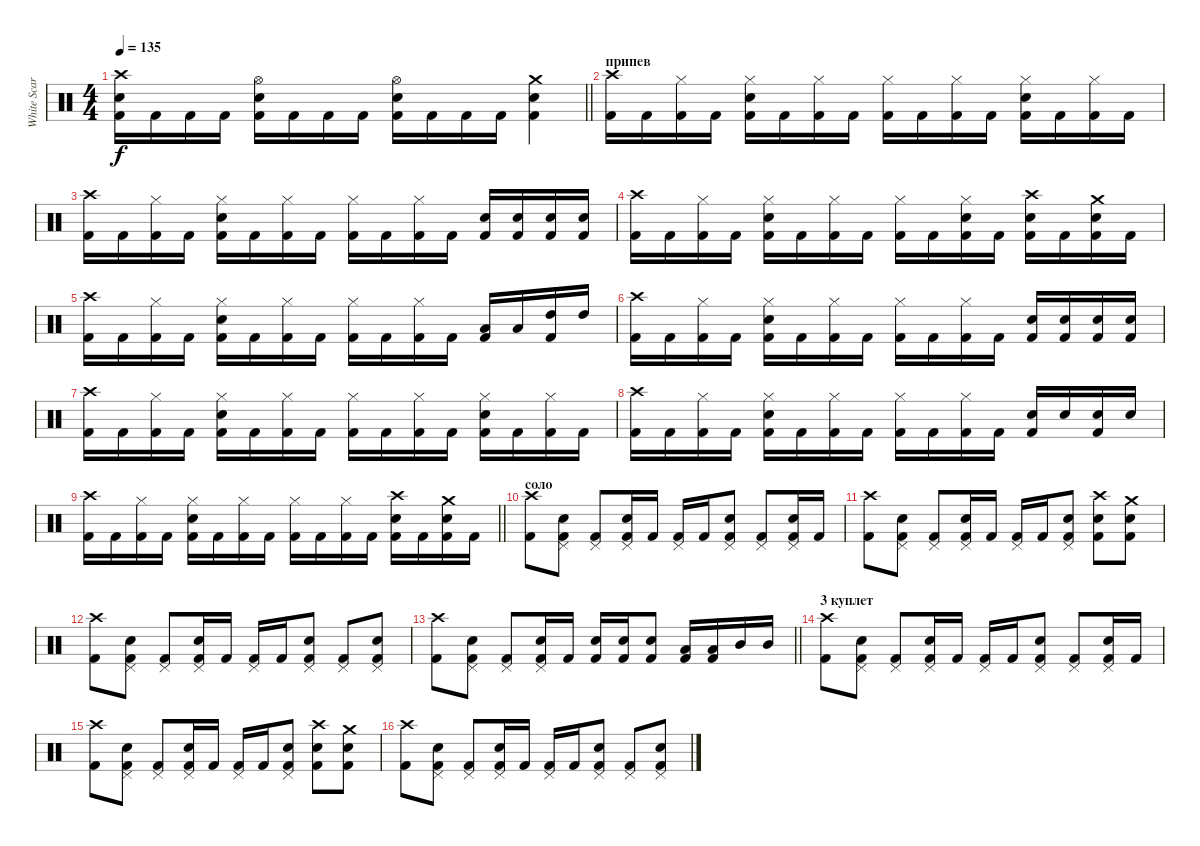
\track ("White Scar" "White Scar") {instrument percussion}
\staff {score}
\articulation defaults
\ts (4 4)
\tempo 135
\clef neutral
\barLineRight lightlight
\ks c
("Crash high (hit)" "Snare (hit) 2" "Kick (hit) 2").16{dy f} "Kick (hit) 2".16 "Kick (hit) 2".16 "Kick (hit) 2".16 ("Hi-Hat (open)" "Snare (hit) 2" "Kick (hit) 2").16 "Kick (hit) 2".16 "Kick (hit) 2".16 "Kick (hit) 2".16 ("Hi-Hat (open)" "Snare (hit) 2" "Kick (hit) 2").16 "Kick (hit) 2".16 "Kick (hit) 2".16 "Kick (hit) 2".16 ("Crash medium (hit)" "Snare (hit) 2" "Kick (hit) 2").4 |
\section ("" "припев")
("Crash high (hit)" "Kick (hit) 2").16 "Kick (hit) 2".16 ("Hi-Hat (closed)" "Kick (hit) 2").16 "Kick (hit) 2".16 ("Snare (hit) 2" "Hi-Hat (closed)" "Kick (hit) 2").16 "Kick (hit) 2".16 ("Hi-Hat (closed)" "Kick (hit) 2").16 "Kick (hit) 2".16 ("Hi-Hat (closed)" "Kick (hit) 2").16 "Kick (hit) 2".16 ("Hi-Hat (closed)" "Kick (hit) 2").16 "Kick (hit) 2".16 ("Snare (hit) 2" "Hi-Hat (closed)" "Kick (hit) 2").16 "Kick (hit) 2".16 ("Hi-Hat (closed)" "Kick (hit) 2").16 "Kick (hit) 2".16 |
("Crash high (hit)" "Kick (hit) 2").16 "Kick (hit) 2".16 ("Hi-Hat (closed)" "Kick (hit) 2").16 "Kick (hit) 2".16 ("Snare (hit) 2" "Hi-Hat (closed)" "Kick (hit) 2").16 "Kick (hit) 2".16 ("Hi-Hat (closed)" "Kick (hit) 2").16 "Kick (hit) 2".16 ("Hi-Hat (closed)" "Kick (hit) 2").16 "Kick (hit) 2".16 ("Hi-Hat (closed)" "Kick (hit) 2").16 "Kick (hit) 2".16 ("Snare (hit) 2" "Kick (hit) 2").16 ("Snare (hit) 2" "Kick (hit) 2").16 ("Snare (hit) 2" "Kick (hit) 2").16 ("Snare (hit) 2" "Kick (hit) 2").16 |
("Crash high (hit)" "Kick (hit) 2").16 "Kick (hit) 2".16 ("Hi-Hat (closed)" "Kick (hit) 2").16 "Kick (hit) 2".16 ("Snare (hit) 2" "Hi-Hat (closed)" "Kick (hit) 2").16 "Kick (hit) 2".16 ("Hi-Hat (closed)" "Kick (hit) 2").16 "Kick (hit) 2".16 ("Hi-Hat (closed)" "Kick (hit) 2").16 "Kick (hit) 2".16 ("Snare (hit) 2" "Hi-Hat (closed)" "Kick (hit) 2").16 "Kick (hit) 2".16 ("Snare (hit) 2" "Crash high (hit)" "Kick (hit) 2").16 "Kick (hit) 2".16 ("Snare (hit) 2" "Crash medium (hit)" "Kick (hit) 2").16 "Kick (hit) 2".16 |
("Crash high (hit)" "Kick (hit) 2").16 "Kick (hit) 2".16 ("Hi-Hat (closed)" "Kick (hit) 2").16 "Kick (hit) 2".16 ("Snare (hit) 2" "Hi-Hat (closed)" "Kick (hit) 2").16 "Kick (hit) 2".16 ("Hi-Hat (closed)" "Kick (hit) 2").16 "Kick (hit) 2".16 ("Hi-Hat (closed)" "Kick (hit) 2").16 "Kick (hit) 2".16 ("Hi-Hat (closed)" "Kick (hit) 2").16 "Kick (hit) 2".16 ("Low Tom (hit)" "Kick (hit) 2").16 "Low Tom (hit)".16 ("High Tom (hit)" "Kick (hit) 2").16 "High Tom (hit)".16 |
("Crash high (hit)" "Kick (hit) 2").16 "Kick (hit) 2".16 ("Hi-Hat (closed)" "Kick (hit) 2").16 "Kick (hit) 2".16 ("Snare (hit) 2" "Hi-Hat (closed)" "Kick (hit) 2").16 "Kick (hit) 2".16 ("Hi-Hat (closed)" "Kick (hit) 2").16 "Kick (hit) 2".16 ("Hi-Hat (closed)" "Kick (hit) 2").16 "Kick (hit) 2".16 ("Hi-Hat (closed)" "Kick (hit) 2").16 "Kick (hit) 2".16 ("Snare (hit) 2" "Kick (hit) 2").16 ("Snare (hit) 2" "Kick (hit) 2").16 ("Snare (hit) 2" "Kick (hit) 2").16 ("Snare (hit) 2" "Kick (hit) 2").16 |
("Crash high (hit)" "Kick (hit) 2").16 "Kick (hit) 2".16 ("Hi-Hat (closed)" "Kick (hit) 2").16 "Kick (hit) 2".16 ("Snare (hit) 2" "Hi-Hat (closed)" "Kick (hit) 2").16 "Kick (hit) 2".16 ("Hi-Hat (closed)" "Kick (hit) 2").16 "Kick (hit) 2".16 ("Hi-Hat (closed)" "Kick (hit) 2").16 "Kick (hit) 2".16 ("Hi-Hat (closed)" "Kick (hit) 2").16 "Kick (hit) 2".16 ("Snare (hit) 2" "Hi-Hat (closed)" "Kick (hit) 2").16 "Kick (hit) 2".16 ("Hi-Hat (closed)" "Kick (hit) 2").16 "Kick (hit) 2".16 |
("Crash high (hit)" "Kick (hit) 2").16 "Kick (hit) 2".16 ("Hi-Hat (closed)" "Kick (hit) 2").16 "Kick (hit) 2".16 ("Snare (hit) 2" "Hi-Hat (closed)" "Kick (hit) 2").16 "Kick (hit) 2".16 ("Hi-Hat (closed)" "Kick (hit) 2").16 "Kick (hit) 2".16 ("Hi-Hat (closed)" "Kick (hit) 2").16 "Kick (hit) 2".16 ("Hi-Hat (closed)" "Kick (hit) 2").16 "Kick (hit) 2".16 ("Snare (hit) 2" "Kick (hit) 2").16 "Snare (hit) 2".16 ("Snare (hit) 2" "Kick (hit) 2").16 "Snare (hit) 2".16 |
\barLineRight lightlight
("Crash high (hit)" "Kick (hit) 2").16 "Kick (hit) 2".16 ("Hi-Hat (closed)" "Kick (hit) 2").16 "Kick (hit) 2".16 ("Snare (hit) 2" "Hi-Hat (closed)" "Kick (hit) 2").16 "Kick (hit) 2".16 ("Hi-Hat (closed)" "Kick (hit) 2").16 "Kick (hit) 2".16 ("Hi-Hat (closed)" "Kick (hit) 2").16 "Kick (hit) 2".16 ("Hi-Hat (closed)" "Kick (hit) 2").16 "Kick (hit) 2".16 ("Snare (hit) 2" "Crash high (hit)" "Kick (hit) 2").16 "Kick (hit) 2".16 ("Snare (hit) 2" "Crash medium (hit)" "Kick (hit) 2").16 "Kick (hit) 2".16 |
\section ("" "соло")
("Crash high (hit)" "Kick (hit) 2").8 ("Pedal Hi-Hat (hit)" "Snare (hit) 2" "Kick (hit) 2").8 ("Pedal Hi-Hat (hit)" "Kick (hit) 2").8 ("Pedal Hi-Hat (hit)" "Snare (hit) 2" "Kick (hit) 2").16 "Kick (hit) 2".16 ("Pedal Hi-Hat (hit)" "Kick (hit) 2").16 "Kick (hit) 2".16 ("Pedal Hi-Hat (hit)" "Snare (hit) 2" "Kick (hit) 2").8 ("Pedal Hi-Hat (hit)" "Kick (hit) 2").8 ("Pedal Hi-Hat (hit)" "Snare (hit) 2" "Kick (hit) 2").16 "Kick (hit) 2".16 |
("Crash high (hit)" "Kick (hit) 2").8 ("Pedal Hi-Hat (hit)" "Snare (hit) 2" "Kick (hit) 2").8 ("Pedal Hi-Hat (hit)" "Kick (hit) 2").8 ("Pedal Hi-Hat (hit)" "Snare (hit) 2" "Kick (hit) 2").16 "Kick (hit) 2".16 ("Pedal Hi-Hat (hit)" "Kick (hit) 2").16 "Kick (hit) 2".16 ("Pedal Hi-Hat (hit)" "Snare (hit) 2" "Kick (hit) 2").8 ("Crash high (hit)" "Snare (hit) 2" "Kick (hit) 2").8 ("Crash medium (hit)" "Snare (hit) 2" "Kick (hit) 2").8 |
("Crash high (hit)" "Kick (hit) 2").8 ("Pedal Hi-Hat (hit)" "Snare (hit) 2" "Kick (hit) 2").8 ("Pedal Hi-Hat (hit)" "Kick (hit) 2").8 ("Pedal Hi-Hat (hit)" "Snare (hit) 2" "Kick (hit) 2").16 "Kick (hit) 2".16 ("Pedal Hi-Hat (hit)" "Kick (hit) 2").16 "Kick (hit) 2".16 ("Pedal Hi-Hat (hit)" "Snare (hit) 2" "Kick (hit) 2").8 ("Pedal Hi-Hat (hit)" "Kick (hit) 2").8 ("Pedal Hi-Hat (hit)" "Snare (hit) 2" "Kick (hit) 2").8 |
\barLineRight lightlight
("Crash high (hit)" "Kick (hit) 2").8 ("Pedal Hi-Hat (hit)" "Snare (hit) 2" "Kick (hit) 2").8 ("Pedal Hi-Hat (hit)" "Kick (hit) 2").8 ("Pedal Hi-Hat (hit)" "Snare (hit) 2" "Kick (hit) 2").16 "Kick (hit) 2".16 ("Snare (hit) 2" "Kick (hit) 2").16 ("Snare (hit) 2" "Kick (hit) 2").16 ("Snare (hit) 2" "Kick (hit) 2").8 ("Low Tom (hit)" "Kick (hit) 2").16 ("Low Tom (hit)" "Kick (hit) 2").16 "Mid Tom (hit)".16 "Mid Tom (hit)".16 |
\section ("" "3 куплет")
("Crash high (hit)" "Kick (hit) 2").8 ("Pedal Hi-Hat (hit)" "Snare (hit) 2" "Kick (hit) 2").8 ("Pedal Hi-Hat (hit)" "Kick (hit) 2").8 ("Pedal Hi-Hat (hit)" "Snare (hit) 2" "Kick (hit) 2").16 "Kick (hit) 2".16 ("Pedal Hi-Hat (hit)" "Kick (hit) 2").16 "Kick (hit) 2".16 ("Pedal Hi-Hat (hit)" "Snare (hit) 2" "Kick (hit) 2").8 ("Pedal Hi-Hat (hit)" "Kick (hit) 2").8 ("Pedal Hi-Hat (hit)" "Snare (hit) 2" "Kick (hit) 2").16 "Kick (hit) 2".16 |
("Crash high (hit)" "Kick (hit) 2").8 ("Pedal Hi-Hat (hit)" "Snare (hit) 2" "Kick (hit) 2").8 ("Pedal Hi-Hat (hit)" "Kick (hit) 2").8 ("Pedal Hi-Hat (hit)" "Snare (hit) 2" "Kick (hit) 2").16 "Kick (hit) 2".16 ("Pedal Hi-Hat (hit)" "Kick (hit) 2").16 "Kick (hit) 2".16 ("Pedal Hi-Hat (hit)" "Snare (hit) 2" "Kick (hit) 2").8 ("Crash high (hit)" "Snare (hit) 2" "Kick (hit) 2").8 ("Crash medium (hit)" "Snare (hit) 2" "Kick (hit) 2").8 |
("Crash high (hit)" "Kick (hit) 2").8 ("Pedal Hi-Hat (hit)" "Snare (hit) 2" "Kick (hit) 2").8 ("Pedal Hi-Hat (hit)" "Kick (hit) 2").8 ("Pedal Hi-Hat (hit)" "Snare (hit) 2" "Kick (hit) 2").16 "Kick (hit) 2".16 ("Pedal Hi-Hat (hit)" "Kick (hit) 2").16 "Kick (hit) 2".16 ("Pedal Hi-Hat (hit)" "Snare (hit) 2" "Kick (hit) 2").8 ("Pedal Hi-Hat (hit)" "Kick (hit) 2").8 ("Pedal Hi-Hat (hit)" "Snare (hit) 2" "Kick (hit) 2").8
